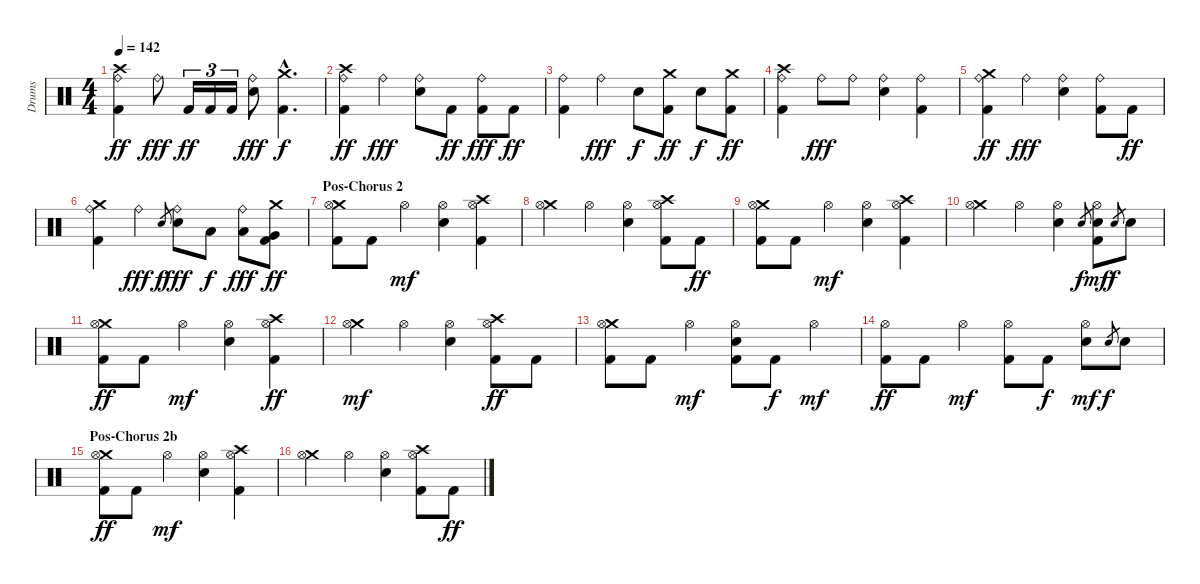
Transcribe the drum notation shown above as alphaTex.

\track ("Drums" "Drums") {instrument percussion}
\staff {score}
\articulation defaults
\ts (4 4)
\tempo 142
\clef neutral
\ks c
("Crash high (hit)" "Ride (bell)" "Kick (hit) 2").4{dy ff} "Ride (bell)".8{dy fff} "Kick (hit) 2".16{tu (3 2) dy ff} "Kick (hit) 2".16{tu (3 2)} "Kick (hit) 2".16{tu (3 2)} ("Ride (bell)" "Snare (hit) 2").8{dy fff} ("Crash medium (hit)"{hac} "Kick (hit) 2"{hac}).4{d dy f} |
("Crash high (hit)" "Ride (bell)" "Kick (hit) 2").4{dy ff} "Ride (bell)".4{dy fff} ("Ride (bell)" "Snare (hit) 2").8 "Kick (hit) 2".8{dy ff} ("Ride (bell)" "Kick (hit) 2").8{dy fff} "Kick (hit) 2".8{dy ff} |
("Ride (bell)" "Kick (hit) 2").4 "Ride (bell)".4{dy fff} "Snare (hit) 2".8{dy f} ("Crash medium (hit)" "Kick (hit) 2").8{dy ff} "Snare (hit) 2".8{dy f} ("Crash medium (hit)" "Kick (hit) 2").8{dy ff} |
("Crash high (hit)" "Ride (bell)" "Kick (hit) 2").4 "Ride (bell)".8{dy fff} "Ride (bell)".8 ("Ride (bell)" "Snare (hit) 2").4 ("Ride (bell)" "Kick (hit) 2").4 |
("Crash medium (hit)" "Ride (bell)" "Kick (hit) 2").4{dy ff} "Ride (bell)".4{dy fff} ("Ride (bell)" "Snare (hit) 2").4 ("Ride (bell)" "Kick (hit) 2").8 "Kick (hit) 2".8{dy ff} |
("Crash medium (hit)" "Ride (bell)" "Kick (hit) 2").4 "Ride (bell)".4{dy fff} "Snare (hit) 2".8{gr dy f} ("Ride (bell)" "Snare (hit) 2").8{dy fff} "Low Tom (hit)".8{dy f} ("Ride (bell)" "Low Tom (hit)").8{dy fff} ("Crash medium (hit)" "Very Low Tom (hit)" "Kick (hit) 2").8{dy ff} |
\section ("" "Pos-Chorus 2")
("Crash medium (hit)" "Hi-Hat (open)" "Kick (hit) 2").8 "Kick (hit) 2".8 "Hi-Hat (open)".4{dy mf} ("Hi-Hat (open)" "Snare (hit) 2").4 ("Crash high (hit)" "Hi-Hat (open)" "Kick (hit) 2").4 |
("Crash medium (hit)" "Hi-Hat (open)").4 "Hi-Hat (open)".4 ("Hi-Hat (open)" "Snare (hit) 2").4 ("Crash high (hit)" "Hi-Hat (open)" "Kick (hit) 2").8 "Kick (hit) 2".8{dy ff} |
("Crash medium (hit)" "Hi-Hat (open)" "Kick (hit) 2").8 "Kick (hit) 2".8 "Hi-Hat (open)".4{dy mf} ("Hi-Hat (open)" "Snare (hit) 2").4 ("Crash high (hit)" "Hi-Hat (open)" "Kick (hit) 2").4 |
("Crash medium (hit)" "Hi-Hat (open)").4 "Hi-Hat (open)".4 ("Hi-Hat (open)" "Snare (hit) 2").4 "Snare (hit) 2".8{gr dy f} ("Hi-Hat (open)" "Snare (hit) 2" "Kick (hit) 2").8{dy mf} "Snare (hit) 2".8{gr dy f} "Snare (hit) 2".8 |
("Crash medium (hit)" "Hi-Hat (open)" "Kick (hit) 2").8{dy ff} "Kick (hit) 2".8 "Hi-Hat (open)".4{dy mf} ("Hi-Hat (open)" "Snare (hit) 2").4 ("Crash high (hit)" "Hi-Hat (open)" "Kick (hit) 2").4{dy ff} |
("Crash medium (hit)" "Hi-Hat (open)").4{dy mf} "Hi-Hat (open)".4 ("Hi-Hat (open)" "Snare (hit) 2").4 ("Crash high (hit)" "Hi-Hat (open)" "Kick (hit) 2").8{dy ff} "Kick (hit) 2".8 |
("Crash medium (hit)" "Hi-Hat (open)" "Kick (hit) 2").8 "Kick (hit) 2".8 "Hi-Hat (open)".4{dy mf} ("Hi-Hat (open)" "Snare (hit) 2" "Kick (hit) 2").8 "Kick (hit) 2".8{dy f} "Hi-Hat (open)".4{dy mf} |
("Hi-Hat (open)" "Kick (hit) 2").8{dy ff} "Kick (hit) 2".8 "Hi-Hat (open)".4{dy mf} ("Hi-Hat (open)" "Kick (hit) 2").8 "Kick (hit) 2".8{dy f} ("Hi-Hat (open)" "Snare (hit) 2").8{dy mf} "Snare (hit) 2".8{gr dy f} "Snare (hit) 2".8 |
\section ("" "Pos-Chorus 2b")
("Crash medium (hit)" "Hi-Hat (open)" "Kick (hit) 2").8{dy ff} "Kick (hit) 2".8 "Hi-Hat (open)".4{dy mf} ("Hi-Hat (open)" "Snare (hit) 2").4 ("Crash high (hit)" "Hi-Hat (open)" "Kick (hit) 2").4 |
("Crash medium (hit)" "Hi-Hat (open)").4 "Hi-Hat (open)".4 ("Hi-Hat (open)" "Snare (hit) 2").4 ("Crash high (hit)" "Hi-Hat (open)" "Kick (hit) 2").8 "Kick (hit) 2".8{dy ff}
